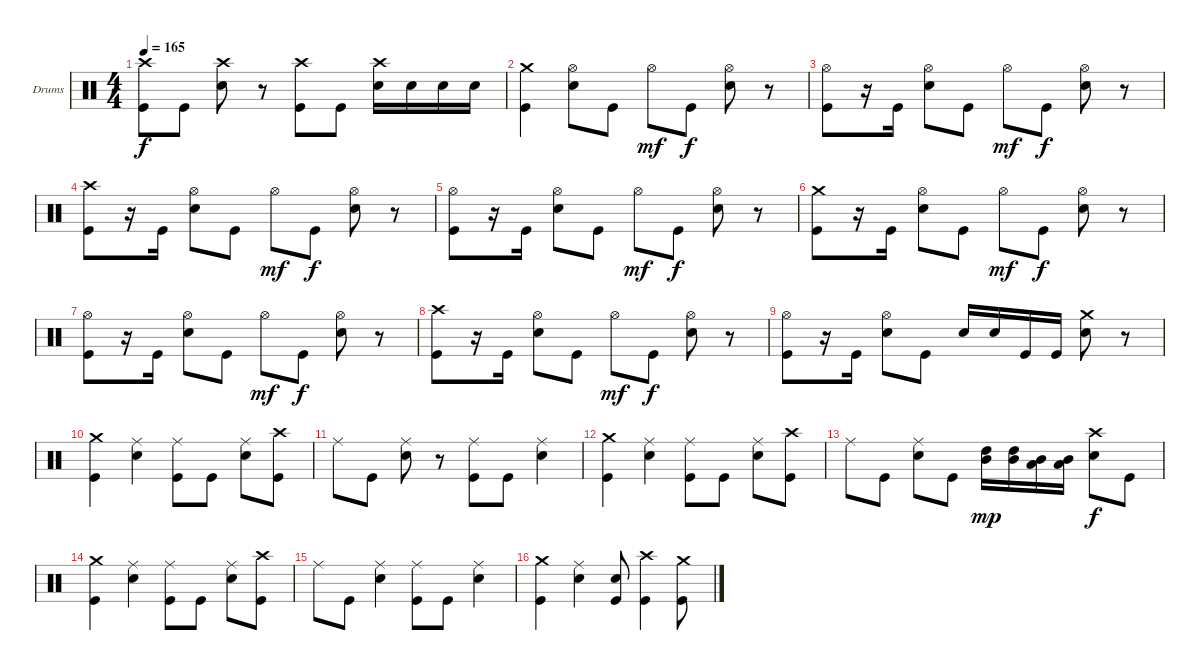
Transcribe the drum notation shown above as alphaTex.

\bracketExtendMode groupsimilarinstruments
\firstSystemTrackNameOrientation horizontal
\otherSystemsTrackNameOrientation horizontal
\track ("Drumkit" "Drums") {instrument percussion}
\staff {score}
\articulation defaults
\ts (4 4)
\tempo 165
\clef neutral
\ks c
("Kick (hit)" "Crash high (hit)").8{dy f} "Kick (hit)".8 ("Snare (hit) 2" "Crash high (hit)").8 r.8 ("Kick (hit)" "Crash high (hit)").8 "Kick (hit)".8 ("Snare (hit) 2" "Crash high (hit)").16 "Snare (hit) 2".16 "Snare (hit) 2".16 "Snare (hit) 2".16 |
("Kick (hit)" "Crash medium (hit)").4 ("Snare (hit) 2" "Hi-Hat (open)").8 "Kick (hit)".8 "Hi-Hat (open)".8{dy mf} "Kick (hit)".8{dy f} ("Snare (hit) 2" "Hi-Hat (open)").8 r.8 |
("Kick (hit)" "Hi-Hat (open)").8 r.16 "Kick (hit)".16 ("Snare (hit) 2" "Hi-Hat (open)").8 "Kick (hit)".8 "Hi-Hat (open)".8{dy mf} "Kick (hit)".8{dy f} ("Snare (hit) 2" "Hi-Hat (open)").8 r.8 |
("Kick (hit)" "Crash high (hit)").8 r.16 "Kick (hit)".16 ("Snare (hit) 2" "Hi-Hat (open)").8 "Kick (hit)".8 "Hi-Hat (open)".8{dy mf} "Kick (hit)".8{dy f} ("Snare (hit) 2" "Hi-Hat (open)").8 r.8 |
("Kick (hit)" "Hi-Hat (open)").8 r.16 "Kick (hit)".16 ("Snare (hit) 2" "Hi-Hat (open)").8 "Kick (hit)".8 "Hi-Hat (open)".8{dy mf} "Kick (hit)".8{dy f} ("Snare (hit) 2" "Hi-Hat (open)").8 r.8 |
("Kick (hit)" "Crash medium (hit)").8 r.16 "Kick (hit)".16 ("Snare (hit) 2" "Hi-Hat (open)").8 "Kick (hit)".8 "Hi-Hat (open)".8{dy mf} "Kick (hit)".8{dy f} ("Snare (hit) 2" "Hi-Hat (open)").8 r.8 |
("Kick (hit)" "Hi-Hat (open)").8 r.16 "Kick (hit)".16 ("Snare (hit) 2" "Hi-Hat (open)").8 "Kick (hit)".8 "Hi-Hat (open)".8{dy mf} "Kick (hit)".8{dy f} ("Snare (hit) 2" "Hi-Hat (open)").8 r.8 |
("Kick (hit)" "Crash high (hit)").8 r.16 "Kick (hit)".16 ("Snare (hit) 2" "Hi-Hat (open)").8 "Kick (hit)".8 "Hi-Hat (open)".8{dy mf} "Kick (hit)".8{dy f} ("Snare (hit) 2" "Hi-Hat (open)").8 r.8 |
("Kick (hit)" "Hi-Hat (open)").8 r.16 "Kick (hit)".16 ("Snare (hit) 2" "Hi-Hat (open)").8 "Kick (hit)".8 "Snare (hit) 2".16 "Snare (hit) 2".16 "Kick (hit)".16 "Kick (hit)".16 ("Snare (hit) 2" "Crash medium (hit)").8 r.8 |
("Kick (hit)" "Crash medium (hit)").4 ("Snare (hit) 2" "Ride (middle)").4 ("Kick (hit)" "Ride (middle)").8 "Kick (hit)".8 ("Snare (hit) 2" "Ride (middle)").8 ("Kick (hit)" "Crash high (hit)").8 |
"Ride (middle)".8 "Kick (hit)".8 ("Snare (hit) 2" "Ride (middle)").8 r.8 ("Kick (hit)" "Ride (middle)").8 "Kick (hit)".8 ("Snare (hit) 2" "Ride (middle)").4 |
("Kick (hit)" "Crash medium (hit)").4 ("Snare (hit) 2" "Ride (middle)").4 ("Kick (hit)" "Ride (middle)").8 "Kick (hit)".8 ("Snare (hit) 2" "Ride (middle)").8 ("Kick (hit)" "Crash high (hit)").8 |
"Ride (middle)".8 "Kick (hit)".8 ("Snare (hit) 2" "Ride (middle)").8 "Kick (hit)".8 ("High Tom (hit)" "Mid Tom (hit)").16{dy mp} ("High Tom (hit)" "Mid Tom (hit)").16 ("Mid Tom (hit)" "Low Tom (hit)").16 ("Mid Tom (hit)" "Low Tom (hit)").16 ("Snare (hit) 2" "Crash high (hit)").8{dy f} "Kick (hit)".8 |
("Kick (hit)" "Crash medium (hit)").4 ("Snare (hit) 2" "Ride (middle)").4 ("Kick (hit)" "Ride (middle)").8 "Kick (hit)".8 ("Snare (hit) 2" "Ride (middle)").8 ("Kick (hit)" "Crash high (hit)").8 |
"Ride (middle)".8 "Kick (hit)".8 ("Snare (hit) 2" "Ride (middle)").4 ("Kick (hit)" "Ride (middle)").8 "Kick (hit)".8 ("Snare (hit) 2" "Ride (middle)").4 |
("Kick (hit)" "Crash medium (hit)").4 ("Snare (hit) 2" "Ride (middle)").4 ("Kick (hit)" "Snare (hit) 2").8 ("Kick (hit)" "Crash high (hit)").4 ("Kick (hit)" "Crash medium (hit)").8
